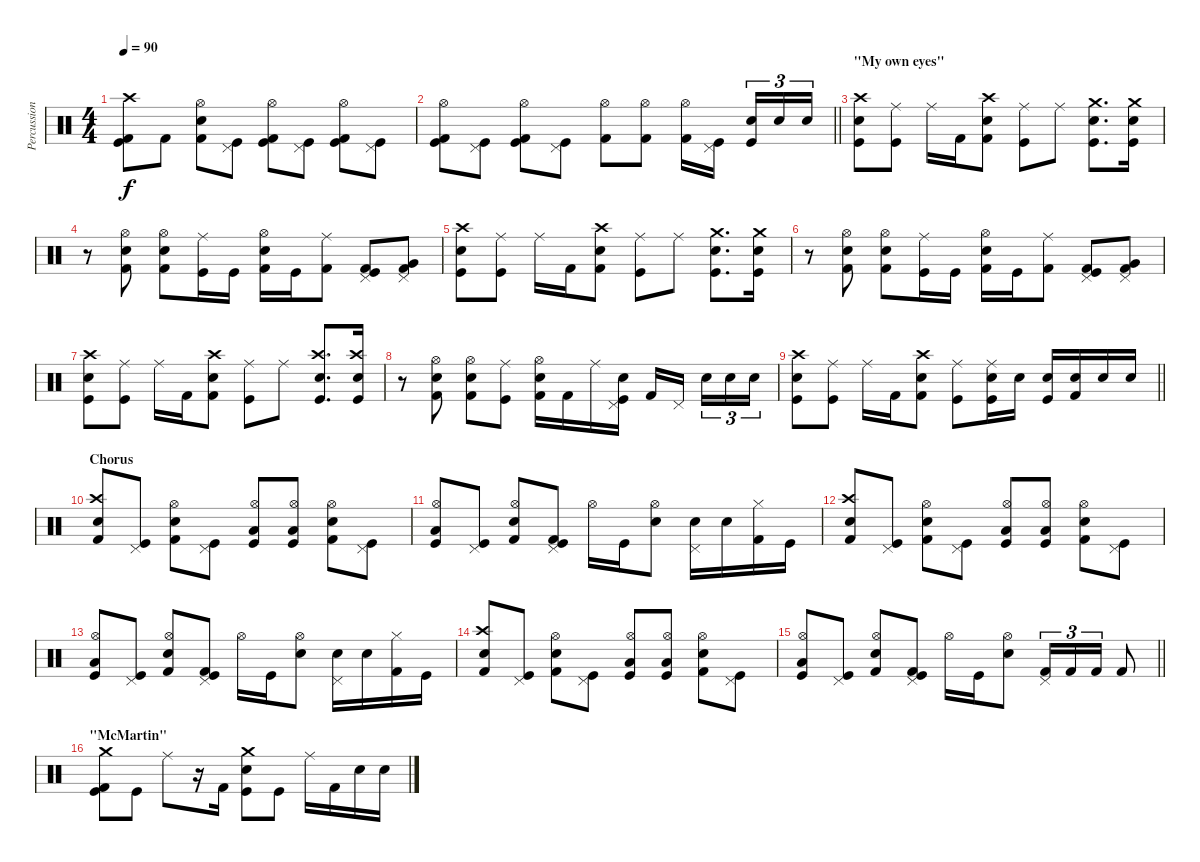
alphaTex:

\track ("Percussion" "Percussion") {instrument percussion}
\staff {score}
\articulation defaults
\ts (4 4)
\tempo 90
\clef neutral
\ks c
("Kick (hit)" "Kick (hit) 2" "Crash high (hit)").8{dy f} "Kick (hit) 2".8 ("Kick (hit) 2" "Electric Snare (hit)" "Hi-Hat (open)").8 ("Kick (hit)" "Pedal Hi-Hat (hit)").8 ("Kick (hit)" "Kick (hit) 2" "Hi-Hat (open)").8 ("Kick (hit)" "Pedal Hi-Hat (hit)").8 ("Kick (hit)" "Kick (hit) 2" "Hi-Hat (open)").8 ("Kick (hit)" "Pedal Hi-Hat (hit)").8 |
\barLineRight lightlight
("Kick (hit)" "Kick (hit) 2" "Hi-Hat (open)").8 ("Kick (hit)" "Pedal Hi-Hat (hit)").8 ("Kick (hit)" "Kick (hit) 2" "Hi-Hat (open)").8 ("Kick (hit)" "Pedal Hi-Hat (hit)").8 ("Kick (hit) 2" "Hi-Hat (open)").8 ("Kick (hit) 2" "Hi-Hat (open)").8 ("Kick (hit) 2" "Hi-Hat (open)").16 ("Kick (hit)" "Pedal Hi-Hat (hit)").16{beam splitsecondary} ("Kick (hit)" "Electric Snare (hit)").16{tu (3 2)} "Electric Snare (hit)".16{tu (3 2)} "Electric Snare (hit)".16{tu (3 2)} |
\section ("" "\"My own eyes\"")
("Kick (hit)" "Snare (hit) 2" "Crash high (hit)").8 ("Kick (hit)" "Ride (middle)").8 "Ride (middle)".16 "Kick (hit) 2".16 ("Kick (hit) 2" "Snare (hit) 2" "Crash high (hit)").8 ("Kick (hit)" "Ride (middle)").8 "Ride (middle)".8 ("Kick (hit)" "Snare (hit) 2" "Crash medium (hit)").8{d} ("Kick (hit)" "Snare (hit) 2" "Crash medium (hit)").16 |
r.8 ("Kick (hit) 2" "Electric Snare (hit)" "Hi-Hat (open)").8 ("Kick (hit) 2" "Electric Snare (hit)" "Hi-Hat (open)").8 ("Kick (hit)" "Ride (middle)").16 "Kick (hit)".16 ("Kick (hit) 2" "Electric Snare (hit)" "Hi-Hat (open)").16 "Kick (hit)".16 ("Kick (hit) 2" "Ride (middle)").8 ("Kick (hit)" "Kick (hit) 2" "Pedal Hi-Hat (hit)").8 ("Kick (hit) 2" "Very Low Tom (hit)" "Pedal Hi-Hat (hit)").8 |
("Kick (hit)" "Snare (hit) 2" "Crash high (hit)").8 ("Kick (hit)" "Ride (middle)").8 "Ride (middle)".16 "Kick (hit) 2".16 ("Kick (hit) 2" "Snare (hit) 2" "Crash high (hit)").8 ("Kick (hit)" "Ride (middle)").8 "Ride (middle)".8 ("Kick (hit)" "Snare (hit) 2" "Crash medium (hit)").8{d} ("Kick (hit)" "Snare (hit) 2" "Crash medium (hit)").16 |
r.8 ("Kick (hit) 2" "Electric Snare (hit)" "Hi-Hat (open)").8 ("Kick (hit) 2" "Electric Snare (hit)" "Hi-Hat (open)").8 ("Kick (hit)" "Ride (middle)").16 "Kick (hit)".16 ("Kick (hit) 2" "Electric Snare (hit)" "Hi-Hat (open)").16 "Kick (hit)".16 ("Kick (hit) 2" "Ride (middle)").8 ("Kick (hit)" "Kick (hit) 2" "Pedal Hi-Hat (hit)").8 ("Kick (hit) 2" "Very Low Tom (hit)" "Pedal Hi-Hat (hit)").8 |
("Kick (hit)" "Snare (hit) 2" "Crash high (hit)").8 ("Kick (hit)" "Ride (middle)").8 "Ride (middle)".16 "Kick (hit) 2".16 ("Kick (hit) 2" "Snare (hit) 2" "Crash high (hit)").8 ("Kick (hit)" "Ride (middle)").8 "Ride (middle)".8 ("Kick (hit)" "Snare (hit) 2" "Crash high (hit)").8{d} ("Kick (hit)" "Snare (hit) 2" "Crash high (hit)").16 |
r.8 ("Kick (hit) 2" "Electric Snare (hit)" "Hi-Hat (open)").8 ("Kick (hit) 2" "Electric Snare (hit)" "Hi-Hat (open)").8 ("Kick (hit)" "Ride (middle)").8 ("Kick (hit) 2" "Electric Snare (hit)" "Hi-Hat (open)").16 "Kick (hit) 2".16 "Ride (middle)".16 ("Kick (hit)" "Snare (hit) 2" "Pedal Hi-Hat (hit)").16 "Kick (hit) 2".16 "Pedal Hi-Hat (hit)".16{beam splitsecondary} "Snare (hit) 2".16{tu (3 2)} "Electric Snare (hit)".16{tu (3 2)} "Electric Snare (hit)".16{tu (3 2)} |
\barLineRight lightlight
("Kick (hit)" "Snare (hit) 2" "Crash high (hit)").8 ("Kick (hit)" "Ride (middle)").8 "Ride (middle)".16 "Kick (hit) 2".16 ("Kick (hit) 2" "Snare (hit) 2" "Crash high (hit)").8 ("Kick (hit)" "Ride (middle)").8 ("Kick (hit)" "Snare (hit) 2" "Ride (middle)").16 "Electric Snare (hit)".16 ("Kick (hit)" "Snare (hit) 2").16 ("Kick (hit) 2" "Electric Snare (hit)").16 "Electric Snare (hit)".16 "Electric Snare (hit)".16 |
\section ("" "Chorus")
("Kick (hit) 2" "Snare (hit) 2" "Crash high (hit)").8 ("Kick (hit)" "Pedal Hi-Hat (hit)").8 ("Kick (hit) 2" "Electric Snare (hit)" "Hi-Hat (open)").8 ("Kick (hit)" "Pedal Hi-Hat (hit)").8 ("Kick (hit)" "Low Floor Tom (hit)" "Hi-Hat (open)").8 ("Kick (hit)" "Low Floor Tom (hit)" "Hi-Hat (open)").8 ("Kick (hit) 2" "Electric Snare (hit)" "Hi-Hat (open)").8 ("Kick (hit)" "Pedal Hi-Hat (hit)").8 |
("Kick (hit)" "Low Floor Tom (hit)" "Hi-Hat (open)").8 ("Kick (hit)" "Pedal Hi-Hat (hit)").8 ("Kick (hit) 2" "Snare (hit) 2" "Hi-Hat (open)").8 ("Kick (hit)" "Kick (hit) 2" "Pedal Hi-Hat (hit)").8 "Hi-Hat (open)".16 "Kick (hit)".16 ("Snare (hit) 2" "Hi-Hat (open)").8 ("Snare (hit) 2" "Pedal Hi-Hat (hit)").16 "Snare (hit) 2".16 ("Kick (hit) 2" "Hi-Hat (closed)").16 "Kick (hit)".16 |
("Kick (hit) 2" "Snare (hit) 2" "Crash high (hit)").8 ("Kick (hit)" "Pedal Hi-Hat (hit)").8 ("Kick (hit) 2" "Electric Snare (hit)" "Hi-Hat (open)").8 ("Kick (hit)" "Pedal Hi-Hat (hit)").8 ("Kick (hit)" "Low Floor Tom (hit)" "Hi-Hat (open)").8 ("Kick (hit)" "Low Floor Tom (hit)" "Hi-Hat (open)").8 ("Kick (hit) 2" "Electric Snare (hit)" "Hi-Hat (open)").8 ("Kick (hit)" "Pedal Hi-Hat (hit)").8 |
("Kick (hit)" "Low Floor Tom (hit)" "Hi-Hat (open)").8 ("Kick (hit)" "Pedal Hi-Hat (hit)").8 ("Kick (hit) 2" "Snare (hit) 2" "Hi-Hat (open)").8 ("Kick (hit)" "Kick (hit) 2" "Pedal Hi-Hat (hit)").8 "Hi-Hat (open)".16 "Kick (hit)".16 ("Snare (hit) 2" "Hi-Hat (open)").8 ("Snare (hit) 2" "Pedal Hi-Hat (hit)").16 "Snare (hit) 2".16 ("Kick (hit) 2" "Hi-Hat (closed)").16 "Kick (hit)".16 |
("Kick (hit) 2" "Snare (hit) 2" "Crash high (hit)").8 ("Kick (hit)" "Pedal Hi-Hat (hit)").8 ("Kick (hit) 2" "Electric Snare (hit)" "Hi-Hat (open)").8 ("Kick (hit)" "Pedal Hi-Hat (hit)").8 ("Kick (hit)" "Low Floor Tom (hit)" "Hi-Hat (open)").8 ("Kick (hit)" "Low Floor Tom (hit)" "Hi-Hat (open)").8 ("Kick (hit) 2" "Electric Snare (hit)" "Hi-Hat (open)").8 ("Kick (hit)" "Pedal Hi-Hat (hit)").8 |
\barLineRight lightlight
("Kick (hit)" "Low Floor Tom (hit)" "Hi-Hat (open)").8 ("Kick (hit)" "Pedal Hi-Hat (hit)").8 ("Kick (hit) 2" "Snare (hit) 2" "Hi-Hat (open)").8 ("Kick (hit)" "Kick (hit) 2" "Pedal Hi-Hat (hit)").8 "Hi-Hat (open)".16 "Kick (hit)".16 ("Snare (hit) 2" "Hi-Hat (open)").8 ("Kick (hit) 2" "Pedal Hi-Hat (hit)").16{tu (3 2)} "Kick (hit) 2".16{tu (3 2)} "Kick (hit) 2".16{tu (3 2)} "Kick (hit) 2".8 |
\section ("" "\"McMartin\"")
("Kick (hit)" "Kick (hit) 2" "Crash medium (hit)").8 "Kick (hit)".8 "Ride (middle)".8 r.16 "Kick (hit) 2".16 ("Kick (hit)" "Electric Snare (hit)" "Crash medium (hit)").8 "Kick (hit)".8 "Ride (middle)".16 "Kick (hit) 2".16 "Electric Snare (hit)".16 "Electric Snare (hit)".16
